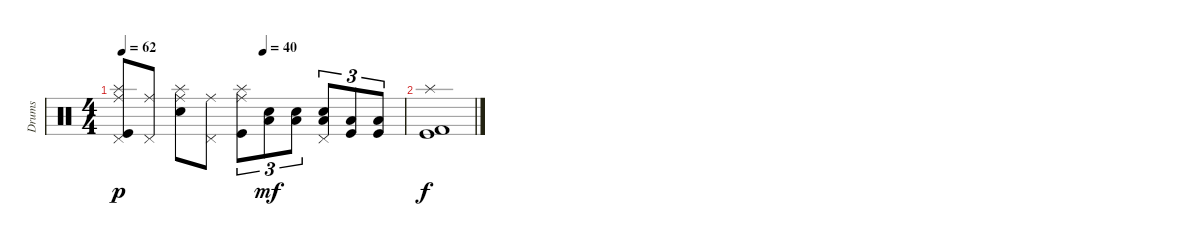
\track ("Drums" "Drums") {instrument percussion}
\staff {score}
\articulation defaults
\ts (4 4)
\tempo 62
\tempo (40 0.5)
\clef neutral
\ks c
("Pedal Hi-Hat (hit)" "Kick (hit)" "Splash (hit)" "Ride (middle)").8{dy p} ("Pedal Hi-Hat (hit)" "Ride (middle)").8 ("Electric Snare (hit)" "Splash (hit)" "Ride (middle)").8 ("Pedal Hi-Hat (hit)" "Ride (middle)").8 ("Kick (hit)" "Splash (hit)" "Ride (middle)").8{tu (3 2)} ("Electric Snare (hit)" "Low Floor Tom (hit)").8{tu (3 2) dy mf} ("Electric Snare (hit)" "Low Floor Tom (hit)").8{tu (3 2)} ("Electric Snare (hit)" "Pedal Hi-Hat (hit)" "Low Floor Tom (hit)").8{tu (3 2)} ("Kick (hit)" "Low Floor Tom (hit)").8{tu (3 2)} ("Kick (hit)" "Low Floor Tom (hit)").8{tu (3 2)} |
("Kick (hit) 2" "Kick (hit)" "Splash (hit)").1{dy f}
